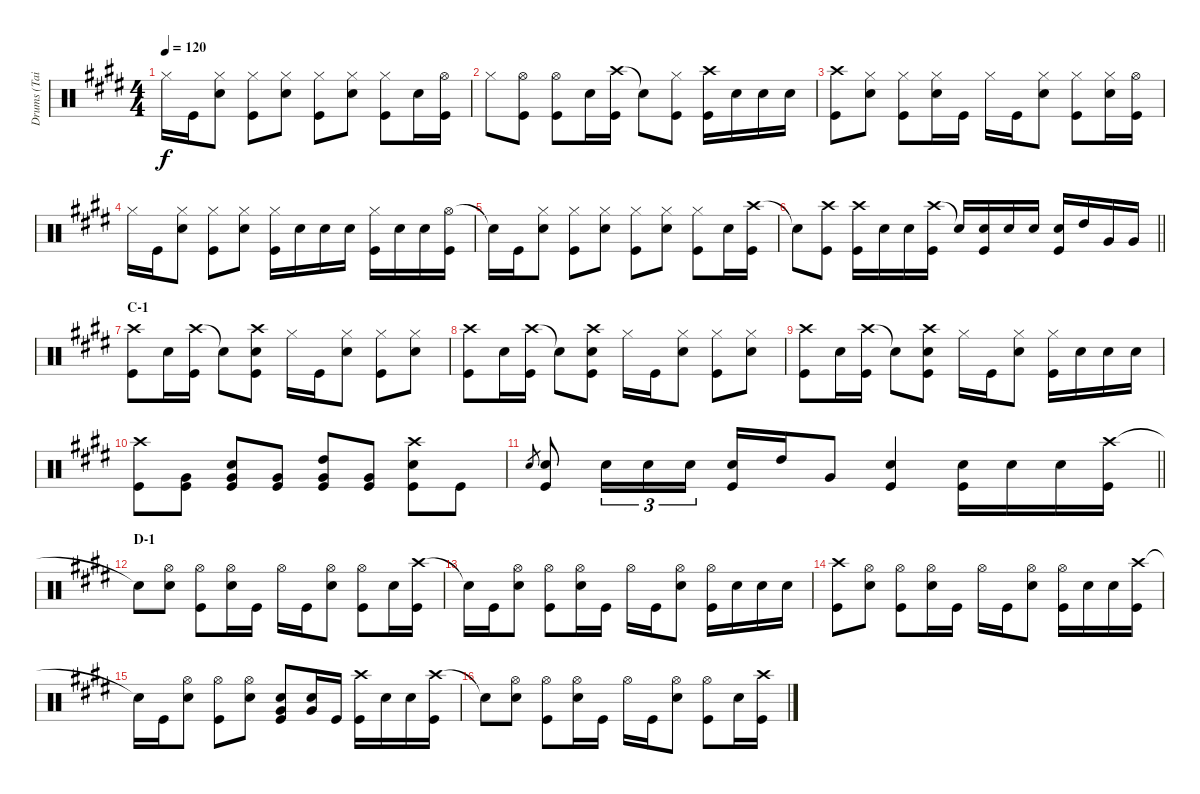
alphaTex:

\track ("Drums (Tainaka Ritsu)" "Drums (Tai") {instrument percussion}
\staff {score}
\articulation defaults
\ts (4 4)
\tempo 120
\clef neutral
\ks e "Hi-Hat (closed)".16{dy f} "Kick (hit)".16
("Hi-Hat (closed)" "Snare (hit) 2").8 ("Hi-Hat (closed)" "Kick (hit)").8 ("Hi-Hat (closed)" "Snare (hit) 2").8 ("Hi-Hat (closed)" "Kick (hit)").8 ("Hi-Hat (closed)" "Snare (hit) 2").8 ("Hi-Hat (closed)" "Kick (hit)").8 "Snare (hit) 2".16 ("Hi-Hat (open)" "Kick (hit)").16 |
"Hi-Hat (closed)".8 ("Hi-Hat (open)" "Kick (hit)").8 ("Hi-Hat (open)" "Kick (hit)").8 "Snare (hit) 2".16 ("Crash high (hit)" "Kick (hit)").16 "Snare (hit)"{t}.8 ("Hi-Hat (closed)" "Kick (hit)").8 ("Crash high (hit)" "Kick (hit)").16 "Snare (hit) 2".16 "Snare (hit) 2".16 "Snare (hit) 2".16 |
("Crash high (hit)" "Kick (hit)").8 ("Hi-Hat (closed)" "Snare (hit) 2").8 ("Hi-Hat (closed)" "Kick (hit)").8 ("Hi-Hat (closed)" "Snare (hit) 2").16 "Kick (hit)".16 "Hi-Hat (closed)".16 "Kick (hit)".16 ("Hi-Hat (closed)" "Snare (hit) 2").8 ("Hi-Hat (closed)" "Kick (hit)").8 ("Hi-Hat (closed)" "Snare (hit) 2").16 ("Hi-Hat (open)" "Kick (hit)").16 |
"Hi-Hat (closed)".16 "Kick (hit)".16 ("Hi-Hat (closed)" "Snare (hit) 2").8 ("Hi-Hat (closed)" "Kick (hit)").8 ("Hi-Hat (closed)" "Snare (hit) 2").8 ("Hi-Hat (closed)" "Kick (hit)").16 "Snare (hit) 2".16 "Snare (hit) 2".16 "Snare (hit) 2".16 ("Hi-Hat (closed)" "Kick (hit)").16 "Snare (hit) 2".16 "Snare (hit) 2".16 ("Hi-Hat (open)" "Kick (hit)").16 |
"Snare (hit)"{t}.16 "Kick (hit)".16 ("Hi-Hat (closed)" "Snare (hit) 2").8 ("Hi-Hat (closed)" "Kick (hit)").8 ("Hi-Hat (closed)" "Snare (hit) 2").8 ("Hi-Hat (closed)" "Kick (hit)").8 ("Hi-Hat (closed)" "Snare (hit) 2").8 ("Hi-Hat (closed)" "Kick (hit)").8 "Snare (hit) 2".16 ("Crash high (hit)" "Kick (hit)").16 |
\barLineRight lightlight "Snare (hit)"{t}.8
("Crash high (hit)" "Kick (hit)").8 ("Crash high (hit)" "Kick (hit)").16 "Snare (hit) 2".16 "Snare (hit) 2".16 ("Crash high (hit)" "Kick (hit)").16 "Snare (hit)"{t}.16 ("Snare (hit) 2" "Kick (hit)").16 "Snare (hit) 2".16 "Snare (hit) 2".16 ("Snare (hit) 2" "Kick (hit)").16 "High Tom (hit)".16 "Very Low Tom (hit)".16 "Very Low Tom (hit)".16 |
\section ("" "C-1")
("Crash high (hit)" "Kick (hit)").8 "Snare (hit) 2".16 ("Crash high (hit)" "Kick (hit)").16 "Snare (hit)"{t}.8 ("Crash high (hit)" "Snare (hit) 2" "Kick (hit)").8 "Hi-Hat (closed)".16 "Kick (hit)".16 ("Hi-Hat (closed)" "Snare (hit) 2").8 ("Hi-Hat (closed)" "Kick (hit)").8 ("Hi-Hat (closed)" "Snare (hit) 2").8 |
("Crash high (hit)" "Kick (hit)").8 "Snare (hit) 2".16 ("Crash high (hit)" "Kick (hit)").16 "Snare (hit)"{t}.8 ("Crash high (hit)" "Snare (hit) 2" "Kick (hit)").8 "Hi-Hat (closed)".16 "Kick (hit)".16 ("Hi-Hat (closed)" "Snare (hit) 2").8 ("Hi-Hat (closed)" "Kick (hit)").8 ("Hi-Hat (closed)" "Snare (hit) 2").8 |
("Crash high (hit)" "Kick (hit)").8 "Snare (hit) 2".16 ("Crash high (hit)" "Kick (hit)").16 "Snare (hit)"{t}.8 ("Crash high (hit)" "Snare (hit) 2" "Kick (hit)").8 "Hi-Hat (closed)".16 "Kick (hit)".16 ("Hi-Hat (closed)" "Snare (hit) 2").8 ("Hi-Hat (closed)" "Kick (hit)").16 "Snare (hit) 2".16 "Snare (hit) 2".16 "Snare (hit) 2".16 |
("Crash high (hit)" "Kick (hit)").8 ("Very Low Tom (hit)" "Kick (hit)").8 ("Snare (hit) 2" "Very Low Tom (hit)" "Kick (hit)").8 ("Very Low Tom (hit)" "Kick (hit)").8 ("High Tom (hit)" "Very Low Tom (hit)" "Kick (hit)").8 ("Very Low Tom (hit)" "Kick (hit)").8 ("Crash high (hit)" "Snare (hit) 2" "Kick (hit)").8 "Kick (hit)".8 |
\barLineRight lightlight "Snare (hit) 2".8{gr}
("Snare (hit) 2" "Kick (hit)").8 "Snare (hit) 2".16{tu (3 2)} "Snare (hit) 2".16{tu (3 2)} "Snare (hit) 2".16{tu (3 2)} ("Snare (hit) 2" "Kick (hit)").16 "High Tom (hit)".16 "Very Low Tom (hit)".8 ("Snare (hit) 2" "Kick (hit)").4 ("Snare (hit) 2" "Kick (hit)").16 "Snare (hit) 2".16 "Snare (hit) 2".16 ("Crash high (hit)" "Kick (hit)").16 |
\section ("" "D-1")
"Snare (hit)"{t}.8 ("Hi-Hat (open)" "Snare (hit) 2").8 ("Hi-Hat (open)" "Kick (hit)").8 ("Hi-Hat (open)" "Snare (hit) 2").16 "Kick (hit)".16 "Hi-Hat (open)".16 "Kick (hit)".16 ("Hi-Hat (open)" "Snare (hit) 2").8 ("Hi-Hat (open)" "Kick (hit)").8 "Snare (hit) 2".16 ("Crash high (hit)" "Kick (hit)").16 |
"Snare (hit)"{t}.16 "Kick (hit)".16 ("Hi-Hat (open)" "Snare (hit) 2").8 ("Hi-Hat (open)" "Kick (hit)").8 ("Hi-Hat (open)" "Snare (hit) 2").16 "Kick (hit)".16 "Hi-Hat (open)".16 "Kick (hit)".16 ("Hi-Hat (open)" "Snare (hit) 2").8 ("Hi-Hat (open)" "Kick (hit)").16 "Snare (hit) 2".16 "Snare (hit) 2".16 "Snare (hit) 2".16 |
("Crash high (hit)" "Kick (hit)").8 ("Hi-Hat (open)" "Snare (hit) 2").8 ("Hi-Hat (open)" "Kick (hit)").8 ("Hi-Hat (open)" "Snare (hit) 2").16 "Kick (hit)".16 "Hi-Hat (open)".16 "Kick (hit)".16 ("Hi-Hat (open)" "Snare (hit) 2").8 ("Hi-Hat (open)" "Kick (hit)").16 "Snare (hit) 2".16 "Snare (hit) 2".16 ("Crash high (hit)" "Kick (hit)").16 |
"Snare (hit)"{t}.16 "Kick (hit)".16 ("Hi-Hat (open)" "Snare (hit) 2").8 ("Hi-Hat (open)" "Kick (hit)").8 ("Hi-Hat (open)" "Snare (hit) 2").8 ("Snare (hit) 2" "Very Low Tom (hit)" "Kick (hit)").8 ("Snare (hit) 2" "Very Low Tom (hit)").16 "Kick (hit)".16 ("Crash high (hit)" "Kick (hit)").16 "Snare (hit) 2".16 "Snare (hit) 2".16 ("Crash high (hit)" "Kick (hit)").16 |
"Snare (hit)"{t}.8 ("Hi-Hat (open)" "Snare (hit) 2").8 ("Hi-Hat (open)" "Kick (hit)").8 ("Hi-Hat (open)" "Snare (hit) 2").16 "Kick (hit)".16 "Hi-Hat (open)".16 "Kick (hit)".16 ("Hi-Hat (open)" "Snare (hit) 2").8 ("Hi-Hat (open)" "Kick (hit)").8 "Snare (hit) 2".16 ("Crash high (hit)" "Kick (hit)").16
